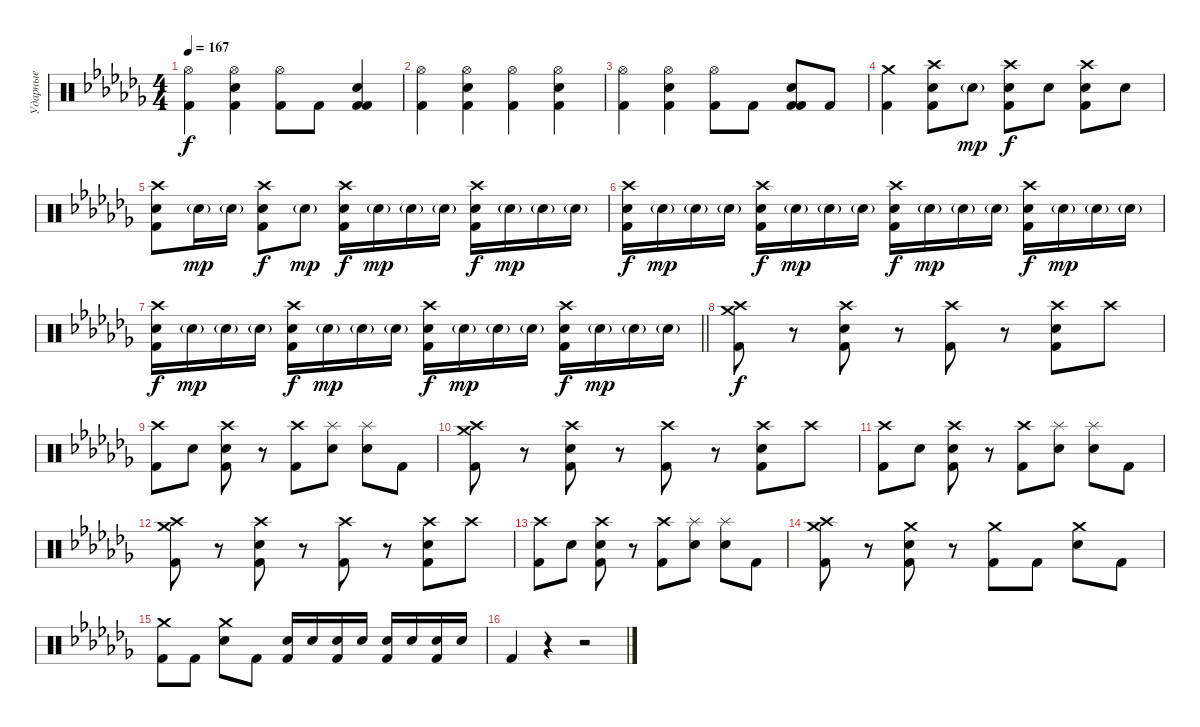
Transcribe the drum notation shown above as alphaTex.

\track ("Ударные" "Ударные") {instrument percussion}
\staff {score}
\articulation defaults
\ts (4 4)
\tempo 167
\clef neutral
\ks abminor
("Hi-Hat (open)" "Kick (hit) 2").4{dy f} ("Hi-Hat (open)" "Electric Snare (hit)" "Kick (hit) 2").4 ("Hi-Hat (open)" "Kick (hit) 2").8 "Kick (hit) 2".8 ("Kick (hit) 2" "Electric Snare (hit)" "Kick (hit) 2").4 |
("Hi-Hat (open)" "Kick (hit) 2").4 ("Hi-Hat (open)" "Electric Snare (hit)" "Kick (hit) 2").4 ("Hi-Hat (open)" "Kick (hit) 2").4 ("Hi-Hat (open)" "Electric Snare (hit)" "Kick (hit) 2").4 |
("Hi-Hat (open)" "Kick (hit) 2").4 ("Hi-Hat (open)" "Electric Snare (hit)" "Kick (hit) 2").4 ("Hi-Hat (open)" "Kick (hit) 2").8 "Kick (hit) 2".8 ("Kick (hit) 2" "Electric Snare (hit)" "Kick (hit) 2").8 "Kick (hit) 2".8 |
("Crash medium (hit)" "Kick (hit) 2").4 ("Crash high (hit)" "Electric Snare (hit)" "Kick (hit) 2").8 "Electric Snare (hit)"{g}.8{dy mp} ("Crash high (hit)" "Electric Snare (hit)" "Kick (hit) 2").8{dy f} "Electric Snare (hit)".8 ("Crash high (hit)" "Electric Snare (hit)" "Kick (hit) 2").8 "Electric Snare (hit)".8 |
("Crash high (hit)" "Electric Snare (hit)" "Kick (hit) 2").8 "Electric Snare (hit)"{g}.16{dy mp} "Electric Snare (hit)"{g}.16 ("Crash high (hit)" "Electric Snare (hit)" "Kick (hit) 2").8{dy f} "Electric Snare (hit)"{g}.8{dy mp} ("Crash high (hit)" "Electric Snare (hit)" "Kick (hit) 2").16{dy f} "Electric Snare (hit)"{g}.16{dy mp} "Electric Snare (hit)"{g}.16 "Electric Snare (hit)"{g}.16 ("Crash high (hit)" "Electric Snare (hit)" "Kick (hit) 2").16{dy f} "Electric Snare (hit)"{g}.16{dy mp} "Electric Snare (hit)"{g}.16 "Electric Snare (hit)"{g}.16 |
("Crash high (hit)" "Electric Snare (hit)" "Kick (hit) 2").16{dy f} "Electric Snare (hit)"{g}.16{dy mp} "Electric Snare (hit)"{g}.16 "Electric Snare (hit)"{g}.16 ("Crash high (hit)" "Electric Snare (hit)" "Kick (hit) 2").16{dy f} "Electric Snare (hit)"{g}.16{dy mp} "Electric Snare (hit)"{g}.16 "Electric Snare (hit)"{g}.16 ("Crash high (hit)" "Electric Snare (hit)" "Kick (hit) 2").16{dy f} "Electric Snare (hit)"{g}.16{dy mp} "Electric Snare (hit)"{g}.16 "Electric Snare (hit)"{g}.16 ("Crash high (hit)" "Electric Snare (hit)" "Kick (hit) 2").16{dy f} "Electric Snare (hit)"{g}.16{dy mp} "Electric Snare (hit)"{g}.16 "Electric Snare (hit)"{g}.16 |
\barLineRight lightlight
("Crash high (hit)" "Electric Snare (hit)" "Kick (hit) 2").16{dy f} "Electric Snare (hit)"{g}.16{dy mp} "Electric Snare (hit)"{g}.16 "Electric Snare (hit)"{g}.16 ("Crash high (hit)" "Electric Snare (hit)" "Kick (hit) 2").16{dy f} "Electric Snare (hit)"{g}.16{dy mp} "Electric Snare (hit)"{g}.16 "Electric Snare (hit)"{g}.16 ("Crash high (hit)" "Electric Snare (hit)" "Kick (hit) 2").16{dy f} "Electric Snare (hit)"{g}.16{dy mp} "Electric Snare (hit)"{g}.16 "Electric Snare (hit)"{g}.16 ("Crash high (hit)" "Electric Snare (hit)" "Kick (hit) 2").16{dy f} "Electric Snare (hit)"{g}.16{dy mp} "Electric Snare (hit)"{g}.16 "Electric Snare (hit)"{g}.16 |
("Crash high (hit)" "Crash medium (hit)" "Kick (hit) 2").8{dy f} r.8 ("Crash high (hit)" "Electric Snare (hit)" "Kick (hit) 2").8 r.8 ("Crash high (hit)" "Kick (hit) 2").8 r.8 ("Crash high (hit)" "Electric Snare (hit)" "Kick (hit) 2").8 "Crash high (hit)".8 |
("Crash high (hit)" "Kick (hit) 2").8 "Electric Snare (hit)".8 ("Crash high (hit)" "Electric Snare (hit)" "Kick (hit) 2").8 r.8 ("Crash high (hit)" "Kick (hit) 2").8 ("Splash (hit)" "Electric Snare (hit)").8 ("Splash (hit)" "Electric Snare (hit)").8 "Kick (hit) 2".8 |
("Crash high (hit)" "Crash medium (hit)" "Kick (hit) 2").8 r.8 ("Crash high (hit)" "Electric Snare (hit)" "Kick (hit) 2").8 r.8 ("Crash high (hit)" "Kick (hit) 2").8 r.8 ("Crash high (hit)" "Electric Snare (hit)" "Kick (hit) 2").8 "Crash high (hit)".8 |
("Crash high (hit)" "Kick (hit) 2").8 "Electric Snare (hit)".8 ("Crash high (hit)" "Electric Snare (hit)" "Kick (hit) 2").8 r.8 ("Crash high (hit)" "Kick (hit) 2").8 ("Splash (hit)" "Electric Snare (hit)").8 ("Splash (hit)" "Electric Snare (hit)").8 "Kick (hit) 2".8 |
("Crash high (hit)" "Crash medium (hit)" "Kick (hit) 2").8 r.8 ("Crash high (hit)" "Electric Snare (hit)" "Kick (hit) 2").8 r.8 ("Crash high (hit)" "Kick (hit) 2").8 r.8 ("Crash high (hit)" "Electric Snare (hit)" "Kick (hit) 2").8 "Crash high (hit)".8 |
("Crash high (hit)" "Kick (hit) 2").8 "Electric Snare (hit)".8 ("Crash high (hit)" "Electric Snare (hit)" "Kick (hit) 2").8 r.8 ("Crash high (hit)" "Kick (hit) 2").8 ("Splash (hit)" "Electric Snare (hit)").8 ("Splash (hit)" "Electric Snare (hit)").8 "Kick (hit) 2".8 |
("Crash high (hit)" "Crash medium (hit)" "Kick (hit) 2").8 r.8 ("Crash medium (hit)" "Electric Snare (hit)" "Kick (hit) 2").8 r.8 ("Crash medium (hit)" "Kick (hit) 2").8 "Kick (hit) 2".8 ("Crash medium (hit)" "Electric Snare (hit)").8 "Kick (hit) 2".8 |
("Crash medium (hit)" "Kick (hit) 2").8 "Kick (hit) 2".8 ("Crash medium (hit)" "Electric Snare (hit)").8 "Kick (hit) 2".8 ("Electric Snare (hit)" "Kick (hit) 2").16 "Electric Snare (hit)".16 ("Electric Snare (hit)" "Kick (hit) 2").16 "Electric Snare (hit)".16 ("Electric Snare (hit)" "Kick (hit) 2").16 "Electric Snare (hit)".16 ("Electric Snare (hit)" "Kick (hit) 2").16 "Electric Snare (hit)".16 |
"Kick (hit) 2".4 r.4 r.2
